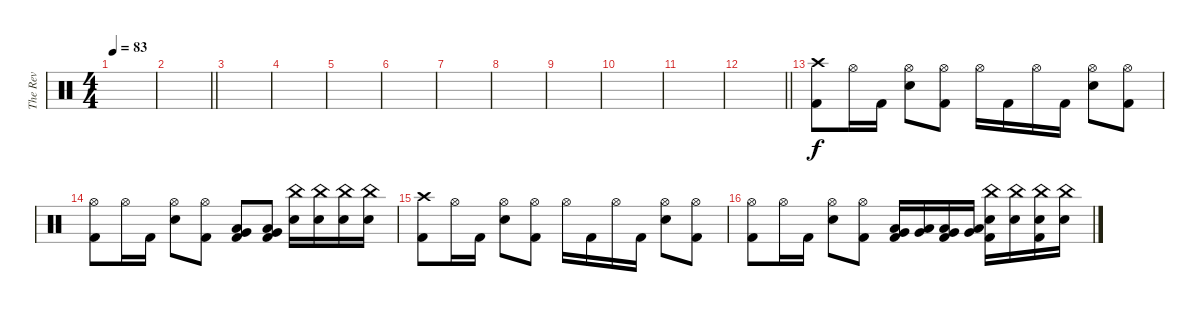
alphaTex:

\track ("The Rev" "The Rev") {instrument percussion}
\staff {score}
\articulation defaults
\ts (4 4)
\tempo 83
\clef neutral
\ks c
|
\barLineRight lightlight
|
|
|
|
|
|
|
|
|
|
\barLineRight lightlight
|
("Crash high (hit)" "Kick (hit) 2").8 "Hi-Hat (open)".16 "Kick (hit) 2".16 ("Hi-Hat (open)" "Snare (hit) 2").8 ("Hi-Hat (open)" "Kick (hit) 2").8 "Hi-Hat (open)".16 "Kick (hit) 2".16 "Hi-Hat (open)".16 "Kick (hit) 2".16 ("Hi-Hat (open)" "Snare (hit) 2").8 ("Hi-Hat (open)" "Kick (hit) 2").8 |
("Hi-Hat (open)" "Kick (hit) 2").8 "Hi-Hat (open)".16 "Kick (hit) 2".16 ("Hi-Hat (open)" "Snare (hit) 2").8 ("Hi-Hat (open)" "Kick (hit) 2").8 ("Low Tom (hit)" "Very Low Tom (hit)" "Kick (hit) 2").8 ("Low Tom (hit)" "Very Low Tom (hit)" "Kick (hit) 2").8 ("China (hit)" "Snare (hit) 2").16 ("China (hit)" "Snare (hit) 2").16 ("China (hit)" "Snare (hit) 2").16 ("China (hit)" "Snare (hit) 2").16 |
("Crash high (hit)" "Kick (hit) 2").8 "Hi-Hat (open)".16 "Kick (hit) 2".16 ("Hi-Hat (open)" "Snare (hit) 2").8 ("Hi-Hat (open)" "Kick (hit) 2").8 "Hi-Hat (open)".16 "Kick (hit) 2".16 "Hi-Hat (open)".16 "Kick (hit) 2".16 ("Hi-Hat (open)" "Snare (hit) 2").8 ("Hi-Hat (open)" "Kick (hit) 2").8 |
("Hi-Hat (open)" "Kick (hit) 2").8 "Hi-Hat (open)".16 "Kick (hit) 2".16 ("Hi-Hat (open)" "Snare (hit) 2").8 ("Hi-Hat (open)" "Kick (hit) 2").8 ("Low Tom (hit)" "Very Low Tom (hit)" "Kick (hit) 2").16 ("Low Tom (hit)" "Very Low Tom (hit)").16 ("Low Tom (hit)" "Very Low Tom (hit)" "Kick (hit) 2").16 ("Low Tom (hit)" "Very Low Tom (hit)").16 ("China (hit)" "Snare (hit) 2" "Kick (hit) 2").16 ("China (hit)" "Snare (hit) 2").16 ("China (hit)" "Snare (hit) 2" "Kick (hit) 2").16 ("China (hit)" "Snare (hit) 2").16
